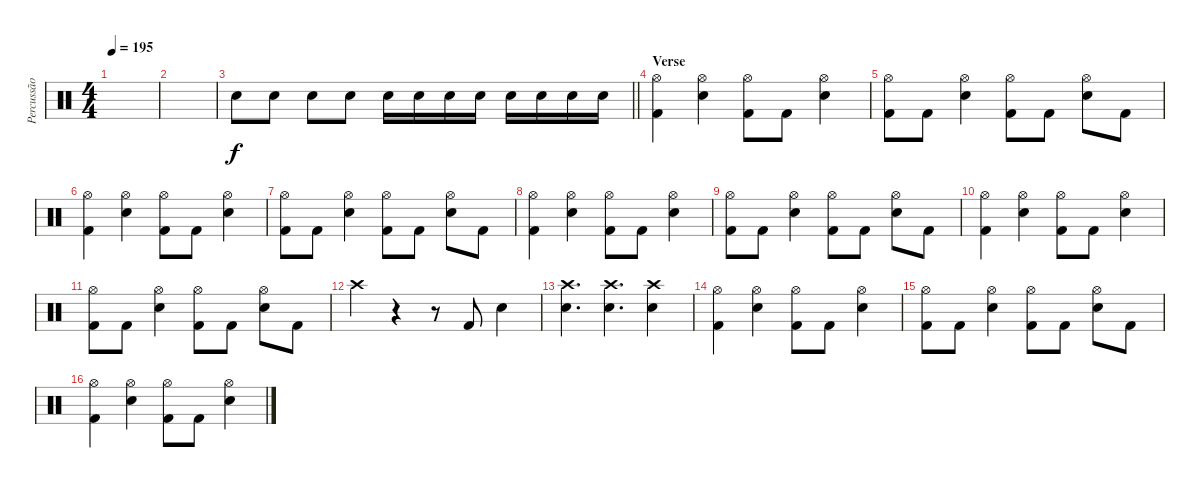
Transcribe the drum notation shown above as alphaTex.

\track ("Percussão" "Percussão") {instrument percussion}
\staff {score}
\articulation defaults
\ts (4 4)
\tempo 195
\clef neutral
\ks c
|
|
\barLineRight lightlight "Snare (hit) 2".8 "Snare (hit) 2".8 "Snare (hit) 2".8 "Snare (hit) 2".8 "Snare (hit) 2".16 "Snare (hit) 2".16 "Snare (hit) 2".16 "Snare (hit) 2".16 "Snare (hit) 2".16 "Snare (hit) 2".16 "Snare (hit) 2".16 "Snare (hit) 2".16
|
\section ("" "Verse")
("Hi-Hat (open)" "Kick (hit) 2").4 ("Hi-Hat (open)" "Snare (hit) 2").4 ("Hi-Hat (open)" "Kick (hit) 2").8 "Kick (hit) 2".8 ("Hi-Hat (open)" "Snare (hit) 2").4 |
("Hi-Hat (open)" "Kick (hit) 2").8 "Kick (hit) 2".8 ("Hi-Hat (open)" "Snare (hit) 2").4 ("Hi-Hat (open)" "Kick (hit) 2").8 "Kick (hit) 2".8 ("Hi-Hat (open)" "Snare (hit) 2").8 "Kick (hit) 2".8 |
("Hi-Hat (open)" "Kick (hit) 2").4 ("Hi-Hat (open)" "Snare (hit) 2").4 ("Hi-Hat (open)" "Kick (hit) 2").8 "Kick (hit) 2".8 ("Hi-Hat (open)" "Snare (hit) 2").4 |
("Hi-Hat (open)" "Kick (hit) 2").8 "Kick (hit) 2".8 ("Hi-Hat (open)" "Snare (hit) 2").4 ("Hi-Hat (open)" "Kick (hit) 2").8 "Kick (hit) 2".8 ("Hi-Hat (open)" "Snare (hit) 2").8 "Kick (hit) 2".8 |
("Hi-Hat (open)" "Kick (hit) 2").4 ("Hi-Hat (open)" "Snare (hit) 2").4 ("Hi-Hat (open)" "Kick (hit) 2").8 "Kick (hit) 2".8 ("Hi-Hat (open)" "Snare (hit) 2").4 |
("Hi-Hat (open)" "Kick (hit) 2").8 "Kick (hit) 2".8 ("Hi-Hat (open)" "Snare (hit) 2").4 ("Hi-Hat (open)" "Kick (hit) 2").8 "Kick (hit) 2".8 ("Hi-Hat (open)" "Snare (hit) 2").8 "Kick (hit) 2".8 |
("Hi-Hat (open)" "Kick (hit) 2").4 ("Hi-Hat (open)" "Snare (hit) 2").4 ("Hi-Hat (open)" "Kick (hit) 2").8 "Kick (hit) 2".8 ("Hi-Hat (open)" "Snare (hit) 2").4 |
("Hi-Hat (open)" "Kick (hit) 2").8 "Kick (hit) 2".8 ("Hi-Hat (open)" "Snare (hit) 2").4 ("Hi-Hat (open)" "Kick (hit) 2").8 "Kick (hit) 2".8 ("Hi-Hat (open)" "Snare (hit) 2").8 "Kick (hit) 2".8 |
"Crash high (hit)".4 r.4 r.8 "Kick (hit) 2".8 "Snare (hit) 2".4 |
("Crash high (hit)" "Snare (hit) 2").4{d} ("Crash high (hit)" "Snare (hit) 2").4{d} ("Crash high (hit)" "Snare (hit) 2").4 |
("Hi-Hat (open)" "Kick (hit) 2").4 ("Hi-Hat (open)" "Snare (hit) 2").4 ("Hi-Hat (open)" "Kick (hit) 2").8 "Kick (hit) 2".8 ("Hi-Hat (open)" "Snare (hit) 2").4 |
("Hi-Hat (open)" "Kick (hit) 2").8 "Kick (hit) 2".8 ("Hi-Hat (open)" "Snare (hit) 2").4 ("Hi-Hat (open)" "Kick (hit) 2").8 "Kick (hit) 2".8 ("Hi-Hat (open)" "Snare (hit) 2").8 "Kick (hit) 2".8 |
("Hi-Hat (open)" "Kick (hit) 2").4 ("Hi-Hat (open)" "Snare (hit) 2").4 ("Hi-Hat (open)" "Kick (hit) 2").8 "Kick (hit) 2".8 ("Hi-Hat (open)" "Snare (hit) 2").4
